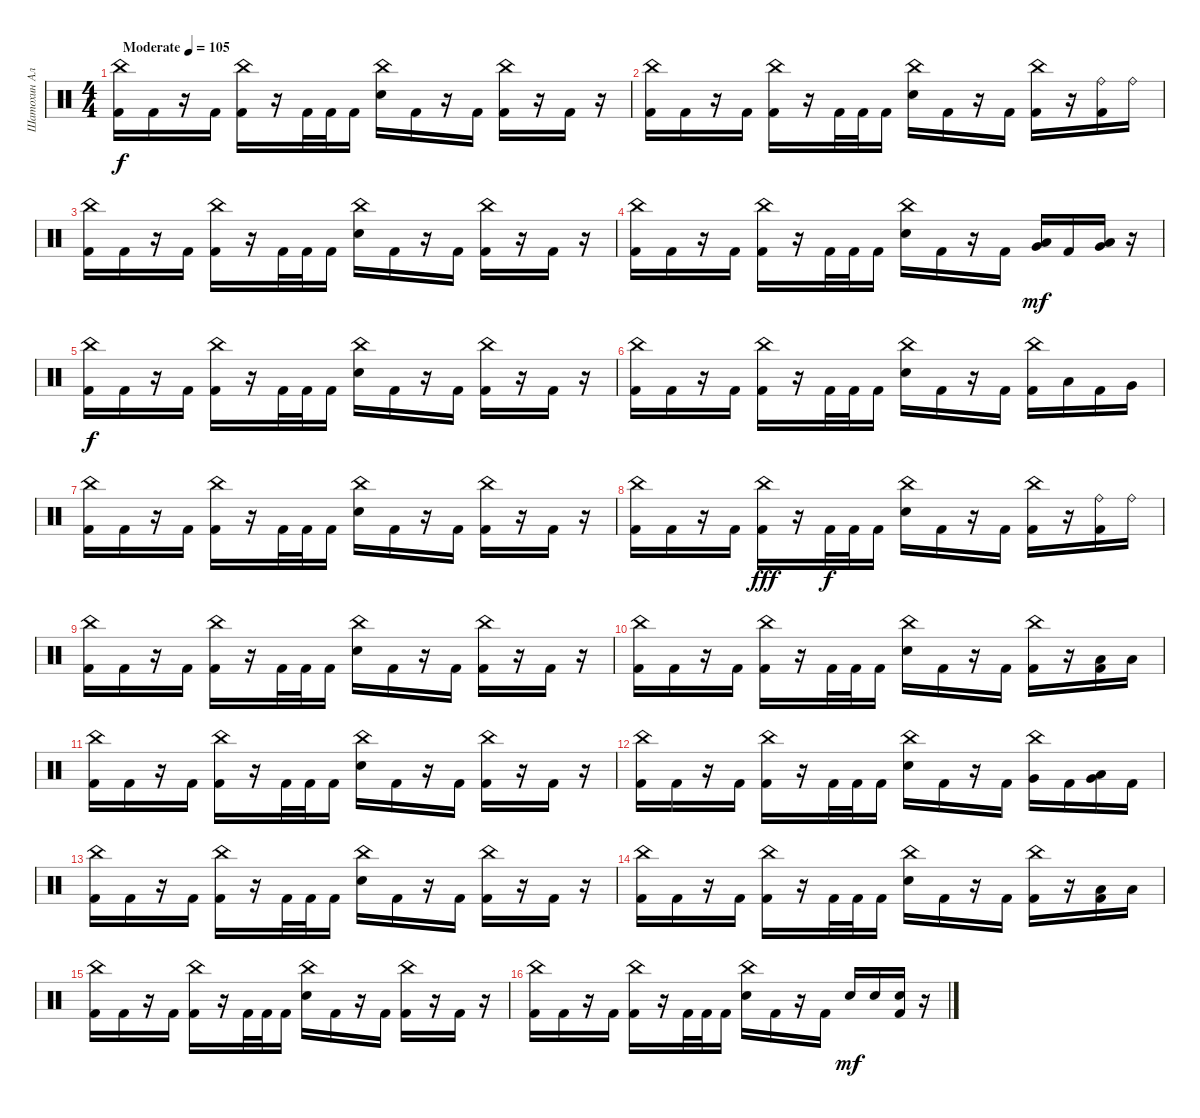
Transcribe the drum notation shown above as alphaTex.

\track ("Шатохин Алексей" "Шатохин Ал") {instrument percussion}
\staff {score}
\articulation defaults
\ts (4 4)
\tempo (105 "Moderate")
\clef neutral
\ks c
("China (hit)" "Kick (hit) 2").16{dy f} "Kick (hit) 2".16 r.16 "Kick (hit) 2".16 ("China (hit)" "Kick (hit) 2").16 r.16 "Kick (hit) 2".32 "Kick (hit) 2".32 "Kick (hit) 2".16 ("China (hit)" "Electric Snare (hit)").16 "Kick (hit) 2".16 r.16 "Kick (hit) 2".16 ("China (hit)" "Kick (hit) 2").16 r.16 "Kick (hit) 2".16 r.16 |
("China (hit)" "Kick (hit) 2").16 "Kick (hit) 2".16 r.16 "Kick (hit) 2".16 ("China (hit)" "Kick (hit) 2").16 r.16 "Kick (hit) 2".32 "Kick (hit) 2".32 "Kick (hit) 2".16 ("China (hit)" "Electric Snare (hit)").16 "Kick (hit) 2".16 r.16 "Kick (hit) 2".16 ("China (hit)" "Kick (hit) 2").16 r.16 ("Ride (bell)" "Kick (hit) 2").16 "Ride (bell)".16 |
("China (hit)" "Kick (hit) 2").16 "Kick (hit) 2".16 r.16 "Kick (hit) 2".16 ("China (hit)" "Kick (hit) 2").16 r.16 "Kick (hit) 2".32 "Kick (hit) 2".32 "Kick (hit) 2".16 ("China (hit)" "Electric Snare (hit)").16 "Kick (hit) 2".16 r.16 "Kick (hit) 2".16 ("China (hit)" "Kick (hit) 2").16 r.16 "Kick (hit) 2".16 r.16 |
("China (hit)" "Kick (hit) 2").16 "Kick (hit) 2".16 r.16 "Kick (hit) 2".16 ("China (hit)" "Kick (hit) 2").16 r.16 "Kick (hit) 2".32 "Kick (hit) 2".32 "Kick (hit) 2".16 ("China (hit)" "Electric Snare (hit)").16 "Kick (hit) 2".16 r.16 "Kick (hit) 2".16 ("Very Low Tom (hit)" "Low Tom (hit)").16{dy mf} "Kick (hit) 2".16 ("Very Low Tom (hit)" "Low Floor Tom (hit)").16 r.16 |
("China (hit)" "Kick (hit) 2").16{dy f} "Kick (hit) 2".16 r.16 "Kick (hit) 2".16 ("China (hit)" "Kick (hit) 2").16 r.16 "Kick (hit) 2".32 "Kick (hit) 2".32 "Kick (hit) 2".16 ("China (hit)" "Electric Snare (hit)").16 "Kick (hit) 2".16 r.16 "Kick (hit) 2".16 ("China (hit)" "Kick (hit) 2").16 r.16 "Kick (hit) 2".16 r.16 |
("China (hit)" "Kick (hit) 2").16 "Kick (hit) 2".16 r.16 "Kick (hit) 2".16 ("China (hit)" "Kick (hit) 2").16 r.16 "Kick (hit) 2".32 "Kick (hit) 2".32 "Kick (hit) 2".16 ("China (hit)" "Electric Snare (hit)").16 "Kick (hit) 2".16 r.16 "Kick (hit) 2".16 ("China (hit)" "Kick (hit) 2").16 "Low Tom (hit)".16 "Kick (hit) 2".16 "Very Low Tom (hit)".16 |
("China (hit)" "Kick (hit) 2").16 "Kick (hit) 2".16 r.16 "Kick (hit) 2".16 ("China (hit)" "Kick (hit) 2").16 r.16 "Kick (hit) 2".32 "Kick (hit) 2".32 "Kick (hit) 2".16 ("China (hit)" "Electric Snare (hit)").16 "Kick (hit) 2".16 r.16 "Kick (hit) 2".16 ("China (hit)" "Kick (hit) 2").16 r.16 "Kick (hit) 2".16 r.16 |
("China (hit)" "Kick (hit) 2").16 "Kick (hit) 2".16 r.16 "Kick (hit) 2".16 ("China (hit)" "Kick (hit) 2").16{dy fff} r.16 "Kick (hit) 2".32{dy f} "Kick (hit) 2".32 "Kick (hit) 2".16 ("China (hit)" "Electric Snare (hit)").16 "Kick (hit) 2".16 r.16 "Kick (hit) 2".16 ("China (hit)" "Kick (hit) 2").16 r.16 ("Ride (bell)" "Kick (hit) 2").16 "Ride (bell)".16 |
("China (hit)" "Kick (hit) 2").16 "Kick (hit) 2".16 r.16 "Kick (hit) 2".16 ("China (hit)" "Kick (hit) 2").16 r.16 "Kick (hit) 2".32 "Kick (hit) 2".32 "Kick (hit) 2".16 ("China (hit)" "Electric Snare (hit)").16 "Kick (hit) 2".16 r.16 "Kick (hit) 2".16 ("China (hit)" "Kick (hit) 2").16 r.16 "Kick (hit) 2".16 r.16 |
("China (hit)" "Kick (hit) 2").16 "Kick (hit) 2".16 r.16 "Kick (hit) 2".16 ("China (hit)" "Kick (hit) 2").16 r.16 "Kick (hit) 2".32 "Kick (hit) 2".32 "Kick (hit) 2".16 ("China (hit)" "Electric Snare (hit)").16 "Kick (hit) 2".16 r.16 "Kick (hit) 2".16 ("China (hit)" "Kick (hit) 2").16 r.16 ("Low Tom (hit)" "Kick (hit) 2").16 "Low Tom (hit)".16 |
("China (hit)" "Kick (hit) 2").16 "Kick (hit) 2".16 r.16 "Kick (hit) 2".16 ("China (hit)" "Kick (hit) 2").16 r.16 "Kick (hit) 2".32 "Kick (hit) 2".32 "Kick (hit) 2".16 ("China (hit)" "Electric Snare (hit)").16 "Kick (hit) 2".16 r.16 "Kick (hit) 2".16 ("China (hit)" "Kick (hit) 2").16 r.16 "Kick (hit) 2".16 r.16 |
("China (hit)" "Kick (hit) 2").16 "Kick (hit) 2".16 r.16 "Kick (hit) 2".16 ("China (hit)" "Kick (hit) 2").16 r.16 "Kick (hit) 2".32 "Kick (hit) 2".32 "Kick (hit) 2".16 ("China (hit)" "Electric Snare (hit)").16 "Kick (hit) 2".16 r.16 "Kick (hit) 2".16 ("China (hit)" "Very Low Tom (hit)").16 "Kick (hit) 2".16 ("Very Low Tom (hit)" "Low Floor Tom (hit)").16 "Kick (hit) 2".16 |
("China (hit)" "Kick (hit) 2").16 "Kick (hit) 2".16 r.16 "Kick (hit) 2".16 ("China (hit)" "Kick (hit) 2").16 r.16 "Kick (hit) 2".32 "Kick (hit) 2".32 "Kick (hit) 2".16 ("China (hit)" "Electric Snare (hit)").16 "Kick (hit) 2".16 r.16 "Kick (hit) 2".16 ("China (hit)" "Kick (hit) 2").16 r.16 "Kick (hit) 2".16 r.16 |
("China (hit)" "Kick (hit) 2").16 "Kick (hit) 2".16 r.16 "Kick (hit) 2".16 ("China (hit)" "Kick (hit) 2").16 r.16 "Kick (hit) 2".32 "Kick (hit) 2".32 "Kick (hit) 2".16 ("China (hit)" "Electric Snare (hit)").16 "Kick (hit) 2".16 r.16 "Kick (hit) 2".16 ("China (hit)" "Kick (hit) 2").16 r.16 ("Low Tom (hit)" "Kick (hit) 2").16 "Low Tom (hit)".16 |
("China (hit)" "Kick (hit) 2").16 "Kick (hit) 2".16 r.16 "Kick (hit) 2".16 ("China (hit)" "Kick (hit) 2").16 r.16 "Kick (hit) 2".32 "Kick (hit) 2".32 "Kick (hit) 2".16 ("China (hit)" "Electric Snare (hit)").16 "Kick (hit) 2".16 r.16 "Kick (hit) 2".16 ("China (hit)" "Kick (hit) 2").16 r.16 "Kick (hit) 2".16 r.16 |
("China (hit)" "Kick (hit) 2").16 "Kick (hit) 2".16 r.16 "Kick (hit) 2".16 ("China (hit)" "Kick (hit) 2").16 r.16 "Kick (hit) 2".32 "Kick (hit) 2".32 "Kick (hit) 2".16 ("China (hit)" "Electric Snare (hit)").16 "Kick (hit) 2".16 r.16 "Kick (hit) 2".16 "Electric Snare (hit)".16{dy mf} "Electric Snare (hit)".16 ("Electric Snare (hit)" "Kick (hit) 2").16 r.16
